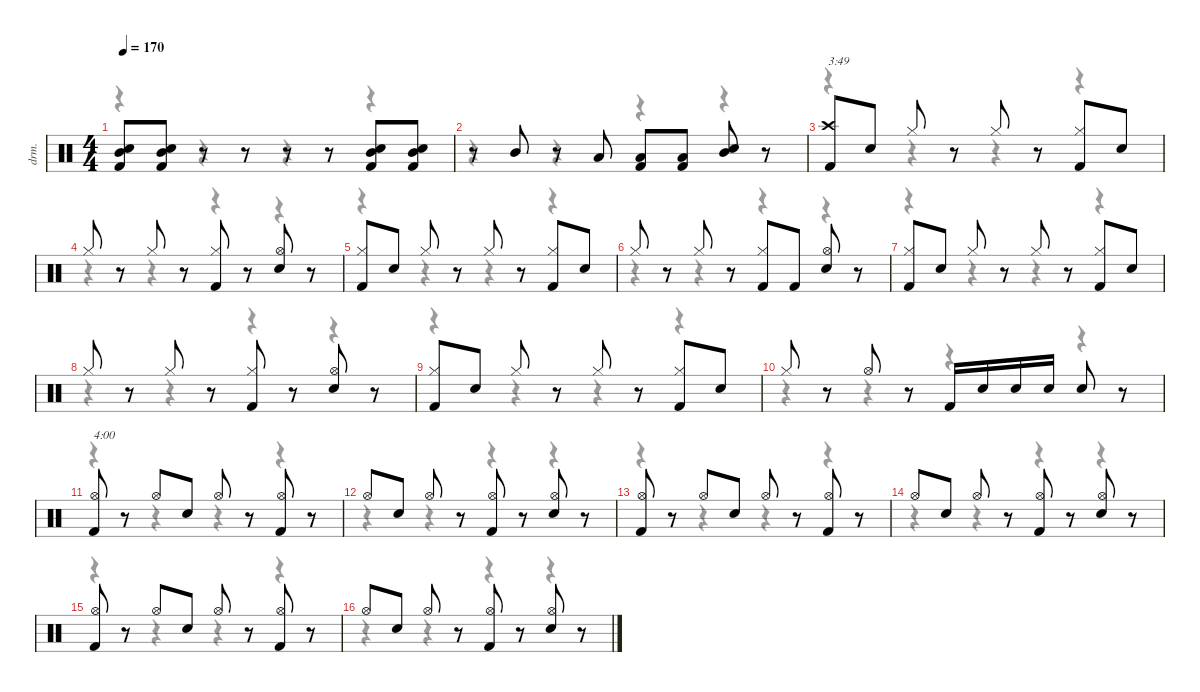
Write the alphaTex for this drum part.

\defaultSystemsLayout 4
\hideDynamics
\bracketExtendMode nobrackets
\otherSystemsTrackNameOrientation horizontal
\track ("Drums" "drm.") {instrument percussion}
\staff {score}
\articulation defaults
\voice
\ts (4 4)
\tempo 170
\clef neutral
\ks c
("Mid Tom (hit)" "Snare (hit) 2" "Kick (hit) 2").8{dy f beam Up} ("Mid Tom (hit)" "Snare (hit) 2" "Kick (hit) 2").8{beam Up} r.8{beam Up} r.8{beam Up} r.8{beam Up} r.8{beam Up} ("Mid Tom (hit)" "Snare (hit) 2" "Kick (hit) 2").8{beam Up} ("Mid Tom (hit)" "Snare (hit) 2" "Kick (hit) 2").8{beam Up} |
r.8{beam Up} "Mid Tom (hit)".8{beam Up} r.8{beam Up} "Low Tom (hit)".8{beam Up} ("Low Floor Tom (hit)" "Kick (hit) 2").8{beam Up} ("Low Floor Tom (hit)" "Kick (hit) 2").8{beam Up} ("Mid Tom (hit)" "Snare (hit) 2").8{beam Up} r.8{beam Up} |
("Crash high (hit)" "Kick (hit) 2").8{txt "3:49" beam Up} "Snare (hit) 2".8{beam Up} "Hi-Hat (closed)".8{beam Up} r.8{beam Up} "Hi-Hat (closed)".8{beam Up} r.8{beam Up} ("Hi-Hat (closed)" "Kick (hit) 2").8{beam Up} "Snare (hit) 2".8{beam Up} |
"Hi-Hat (closed)".8{beam Up} r.8{beam Up} "Hi-Hat (closed)".8{beam Up} r.8{beam Up} ("Hi-Hat (closed)" "Kick (hit) 2").8{beam Up} r.8{beam Up} ("Hi-Hat (open)" "Snare (hit) 2").8{beam Up} r.8{beam Up} |
("Hi-Hat (closed)" "Kick (hit) 2").8{beam Up} "Snare (hit) 2".8{beam Up} "Hi-Hat (closed)".8{beam Up} r.8{beam Up} "Hi-Hat (closed)".8{beam Up} r.8{beam Up} ("Hi-Hat (closed)" "Kick (hit) 2").8{beam Up} "Snare (hit) 2".8{beam Up} |
"Hi-Hat (closed)".8{beam Up} r.8{beam Up} "Hi-Hat (closed)".8{beam Up} r.8{beam Up} ("Hi-Hat (closed)" "Kick (hit) 2").8{beam Up} "Kick (hit) 2".8{beam Up} ("Hi-Hat (open)" "Snare (hit) 2").8{beam Up} r.8{beam Up} |
("Hi-Hat (closed)" "Kick (hit) 2").8{beam Up} "Snare (hit) 2".8{beam Up} "Hi-Hat (closed)".8{beam Up} r.8{beam Up} "Hi-Hat (closed)".8{beam Up} r.8{beam Up} ("Hi-Hat (closed)" "Kick (hit) 2").8{beam Up} "Snare (hit) 2".8{beam Up} |
"Hi-Hat (closed)".8{beam Up} r.8{beam Up} "Hi-Hat (closed)".8{beam Up} r.8{beam Up} ("Hi-Hat (closed)" "Kick (hit) 2").8{beam Up} r.8{beam Up} ("Hi-Hat (open)" "Snare (hit) 2").8{beam Up} r.8{beam Up} |
("Hi-Hat (closed)" "Kick (hit) 2").8{beam Up} "Snare (hit) 2".8{beam Up} "Hi-Hat (closed)".8{beam Up} r.8{beam Up} "Hi-Hat (closed)".8{beam Up} r.8{beam Up} ("Hi-Hat (closed)" "Kick (hit) 2").8{beam Up} "Snare (hit) 2".8{beam Up} |
"Hi-Hat (closed)".8{beam Up} r.8{beam Up} "Hi-Hat (open)".8{beam Up} r.8{beam Up} "Kick (hit) 2".16{beam Up} "Snare (hit) 2".16{beam Up} "Snare (hit) 2".16{beam Up} "Snare (hit) 2".16{beam Up} "Snare (hit) 2".8{beam Up} r.8{beam Up} |
("Hi-Hat (open)" "Kick (hit) 2").8{txt "4:00" beam Up} r.8{beam Up} "Hi-Hat (open)".8{beam Up} "Snare (hit) 2".8{beam Up} "Hi-Hat (open)".8{beam Up} r.8{beam Up} ("Hi-Hat (open)" "Kick (hit) 2").8{beam Up} r.8{beam Up} |
"Hi-Hat (open)".8{beam Up} "Snare (hit) 2".8{beam Up} "Hi-Hat (open)".8{beam Up} r.8{beam Up} ("Hi-Hat (open)" "Kick (hit) 2").8{beam Up} r.8{beam Up} ("Hi-Hat (open)" "Snare (hit) 2").8{beam Up} r.8{beam Up} |
("Hi-Hat (open)" "Kick (hit) 2").8{beam Up} r.8{beam Up} "Hi-Hat (open)".8{beam Up} "Snare (hit) 2".8{beam Up} "Hi-Hat (open)".8{beam Up} r.8{beam Up} ("Hi-Hat (open)" "Kick (hit) 2").8{beam Up} r.8{beam Up} |
"Hi-Hat (open)".8{beam Up} "Snare (hit) 2".8{beam Up} "Hi-Hat (open)".8{beam Up} r.8{beam Up} ("Hi-Hat (open)" "Kick (hit) 2").8{beam Up} r.8{beam Up} ("Hi-Hat (open)" "Snare (hit) 2").8{beam Up} r.8{beam Up} |
("Hi-Hat (open)" "Kick (hit) 2").8{beam Up} r.8{beam Up} "Hi-Hat (open)".8{beam Up} "Snare (hit) 2".8{beam Up} "Hi-Hat (open)".8{beam Up} r.8{beam Up} ("Hi-Hat (open)" "Kick (hit) 2").8{beam Up} r.8{beam Up} |
"Hi-Hat (open)".8{beam Up} "Snare (hit) 2".8{beam Up} "Hi-Hat (open)".8{beam Up} r.8{beam Up} ("Hi-Hat (open)" "Kick (hit) 2").8{beam Up} r.8{beam Up} ("Hi-Hat (open)" "Snare (hit) 2").8{beam Up} r.8{beam Up}
\voice
\clef neutral
\ottava regular
\simile none
\ks c
r.4{dy mf beam Down} r.4{beam Down} r.4{beam Down} r.4{beam Down} |
r.4{beam Down} r.4{beam Down} r.4{beam Down} r.4{beam Down} |
r.4{beam Down} r.4{beam Down} r.4{beam Down} r.4{beam Down} |
r.4{beam Down} r.4{beam Down} r.4{beam Down} r.4{beam Down} |
r.4{beam Down} r.4{beam Down} r.4{beam Down} r.4{beam Down} |
r.4{beam Down} r.4{beam Down} r.4{beam Down} r.4{beam Down} |
r.4{beam Down} r.4{beam Down} r.4{beam Down} r.4{beam Down} |
r.4{beam Down} r.4{beam Down} r.4{beam Down} r.4{beam Down} |
r.4{beam Down} r.4{beam Down} r.4{beam Down} r.4{beam Down} |
r.4{beam Down} r.4{beam Down} r.4{beam Down} r.4{beam Down} |
r.4{beam Down} r.4{beam Down} r.4{beam Down} r.4{beam Down} |
r.4{beam Down} r.4{beam Down} r.4{beam Down} r.4{beam Down} |
r.4{beam Down} r.4{beam Down} r.4{beam Down} r.4{beam Down} |
r.4{beam Down} r.4{beam Down} r.4{beam Down} r.4{beam Down} |
r.4{beam Down} r.4{beam Down} r.4{beam Down} r.4{beam Down} |
r.4{beam Down} r.4{beam Down} r.4{beam Down} r.4{beam Down}
